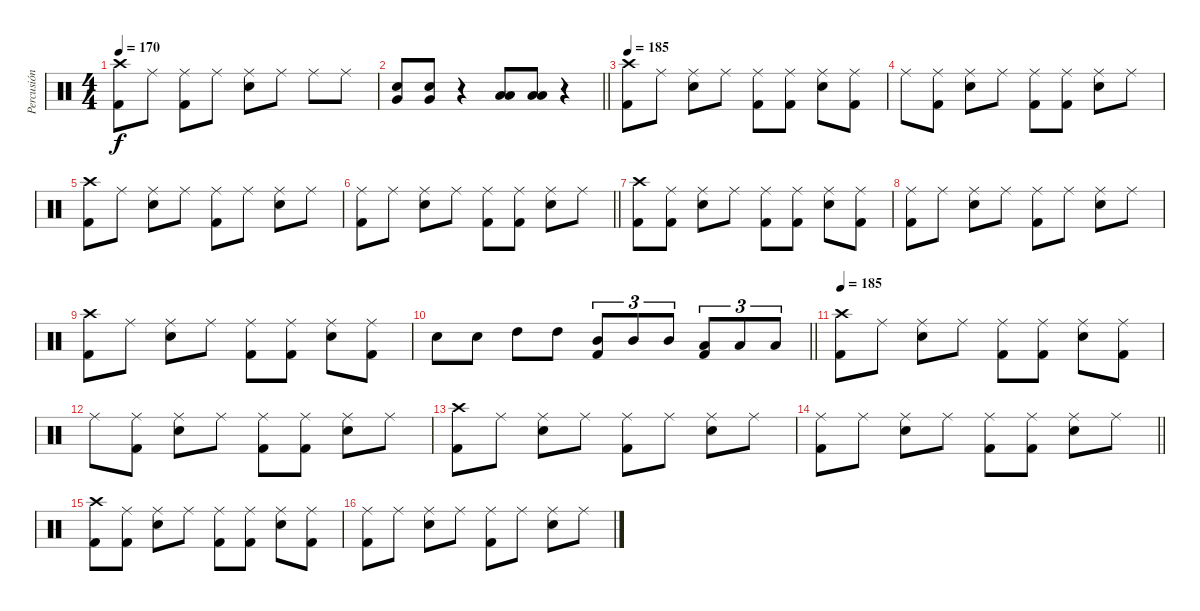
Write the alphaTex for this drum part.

\track ("Percusión" "Percusión") {instrument percussion}
\staff {score}
\articulation defaults
\ts (4 4)
\tempo 170
\clef neutral
\ks c
("Kick (hit) 2" "Crash high (hit)").8{dy f} "Ride (middle)".8 ("Ride (middle)" "Kick (hit) 2").8 "Ride (middle)".8 ("Ride (middle)" "Snare (hit) 2").8 "Ride (middle)".8 "Ride (middle)".8 "Ride (middle)".8 |
\barLineRight lightlight
("Very Low Tom (hit)" "Snare (hit) 2").8 ("Very Low Tom (hit)" "Snare (hit) 2").8 r.4 ("Low Floor Tom (hit)" "Low Tom (hit)").8 ("Low Floor Tom (hit)" "Low Tom (hit)").8 r.4 |
\tempo 220
\tempo 185
("Kick (hit) 2" "Crash high (hit)").8 "Ride (middle)".8 ("Snare (hit) 2" "Ride (middle)").8 "Ride (middle)".8 ("Kick (hit) 2" "Ride (middle)").8 ("Kick (hit) 2" "Ride (middle)").8 ("Snare (hit) 2" "Ride (middle)").8 ("Kick (hit) 2" "Ride (middle)").8 |
"Ride (middle)".8 ("Kick (hit) 2" "Ride (middle)").8 ("Snare (hit) 2" "Ride (middle)").8 "Ride (middle)".8 ("Kick (hit) 2" "Ride (middle)").8 ("Kick (hit) 2" "Ride (middle)").8 ("Snare (hit) 2" "Ride (middle)").8 "Ride (middle)".8 |
("Kick (hit) 2" "Crash high (hit)").8 "Ride (middle)".8 ("Snare (hit) 2" "Ride (middle)").8 "Ride (middle)".8 ("Kick (hit) 2" "Ride (middle)").8 "Ride (middle)".8 ("Snare (hit) 2" "Ride (middle)").8 "Ride (middle)".8 |
\barLineRight lightlight
("Kick (hit) 2" "Ride (middle)").8 "Ride (middle)".8 ("Snare (hit) 2" "Ride (middle)").8 "Ride (middle)".8 ("Kick (hit) 2" "Ride (middle)").8 ("Kick (hit) 2" "Ride (middle)").8 ("Snare (hit) 2" "Ride (middle)").8 "Ride (middle)".8 |
("Kick (hit) 2" "Crash high (hit)").8 ("Kick (hit) 2" "Ride (middle)").8 ("Snare (hit) 2" "Ride (middle)").8 "Ride (middle)".8 ("Kick (hit) 2" "Ride (middle)").8 ("Kick (hit) 2" "Ride (middle)").8 ("Snare (hit) 2" "Ride (middle)").8 ("Kick (hit) 2" "Ride (middle)").8 |
("Kick (hit) 2" "Ride (middle)").8 "Ride (middle)".8 ("Snare (hit) 2" "Ride (middle)").8 "Ride (middle)".8 ("Kick (hit) 2" "Ride (middle)").8 "Ride (middle)".8 ("Snare (hit) 2" "Ride (middle)").8 "Ride (middle)".8 |
("Kick (hit) 2" "Crash high (hit)").8 "Ride (middle)".8 ("Snare (hit) 2" "Ride (middle)").8 "Ride (middle)".8 ("Kick (hit) 2" "Ride (middle)").8 ("Kick (hit) 2" "Ride (middle)").8 ("Snare (hit) 2" "Ride (middle)").8 ("Kick (hit) 2" "Ride (middle)").8 |
\barLineRight lightlight "Snare (hit) 2".8 "Snare (hit) 2".8 "High Tom (hit)".8 "High Tom (hit)".8
("Kick (hit) 2" "Mid Tom (hit)").8{tu (3 2)} "Mid Tom (hit)".8{tu (3 2)} "Mid Tom (hit)".8{tu (3 2)} ("Kick (hit) 2" "Low Tom (hit)").8{tu (3 2)} "Low Tom (hit)".8{tu (3 2)} "Low Tom (hit)".8{tu (3 2)} |
\tempo 220
\tempo 185
("Kick (hit) 2" "Crash high (hit)").8 "Ride (middle)".8 ("Snare (hit) 2" "Ride (middle)").8 "Ride (middle)".8 ("Kick (hit) 2" "Ride (middle)").8 ("Kick (hit) 2" "Ride (middle)").8 ("Snare (hit) 2" "Ride (middle)").8 ("Kick (hit) 2" "Ride (middle)").8 |
"Ride (middle)".8 ("Kick (hit) 2" "Ride (middle)").8 ("Snare (hit) 2" "Ride (middle)").8 "Ride (middle)".8 ("Kick (hit) 2" "Ride (middle)").8 ("Kick (hit) 2" "Ride (middle)").8 ("Snare (hit) 2" "Ride (middle)").8 "Ride (middle)".8 |
("Kick (hit) 2" "Crash high (hit)").8 "Ride (middle)".8 ("Snare (hit) 2" "Ride (middle)").8 "Ride (middle)".8 ("Kick (hit) 2" "Ride (middle)").8 "Ride (middle)".8 ("Snare (hit) 2" "Ride (middle)").8 "Ride (middle)".8 |
\barLineRight lightlight
("Kick (hit) 2" "Ride (middle)").8 "Ride (middle)".8 ("Snare (hit) 2" "Ride (middle)").8 "Ride (middle)".8 ("Kick (hit) 2" "Ride (middle)").8 ("Kick (hit) 2" "Ride (middle)").8 ("Snare (hit) 2" "Ride (middle)").8 "Ride (middle)".8 |
("Kick (hit) 2" "Crash high (hit)").8 ("Kick (hit) 2" "Ride (middle)").8 ("Snare (hit) 2" "Ride (middle)").8 "Ride (middle)".8 ("Kick (hit) 2" "Ride (middle)").8 ("Kick (hit) 2" "Ride (middle)").8 ("Snare (hit) 2" "Ride (middle)").8 ("Kick (hit) 2" "Ride (middle)").8 |
("Kick (hit) 2" "Ride (middle)").8 "Ride (middle)".8 ("Snare (hit) 2" "Ride (middle)").8 "Ride (middle)".8 ("Kick (hit) 2" "Ride (middle)").8 "Ride (middle)".8 ("Snare (hit) 2" "Ride (middle)").8 "Ride (middle)".8
